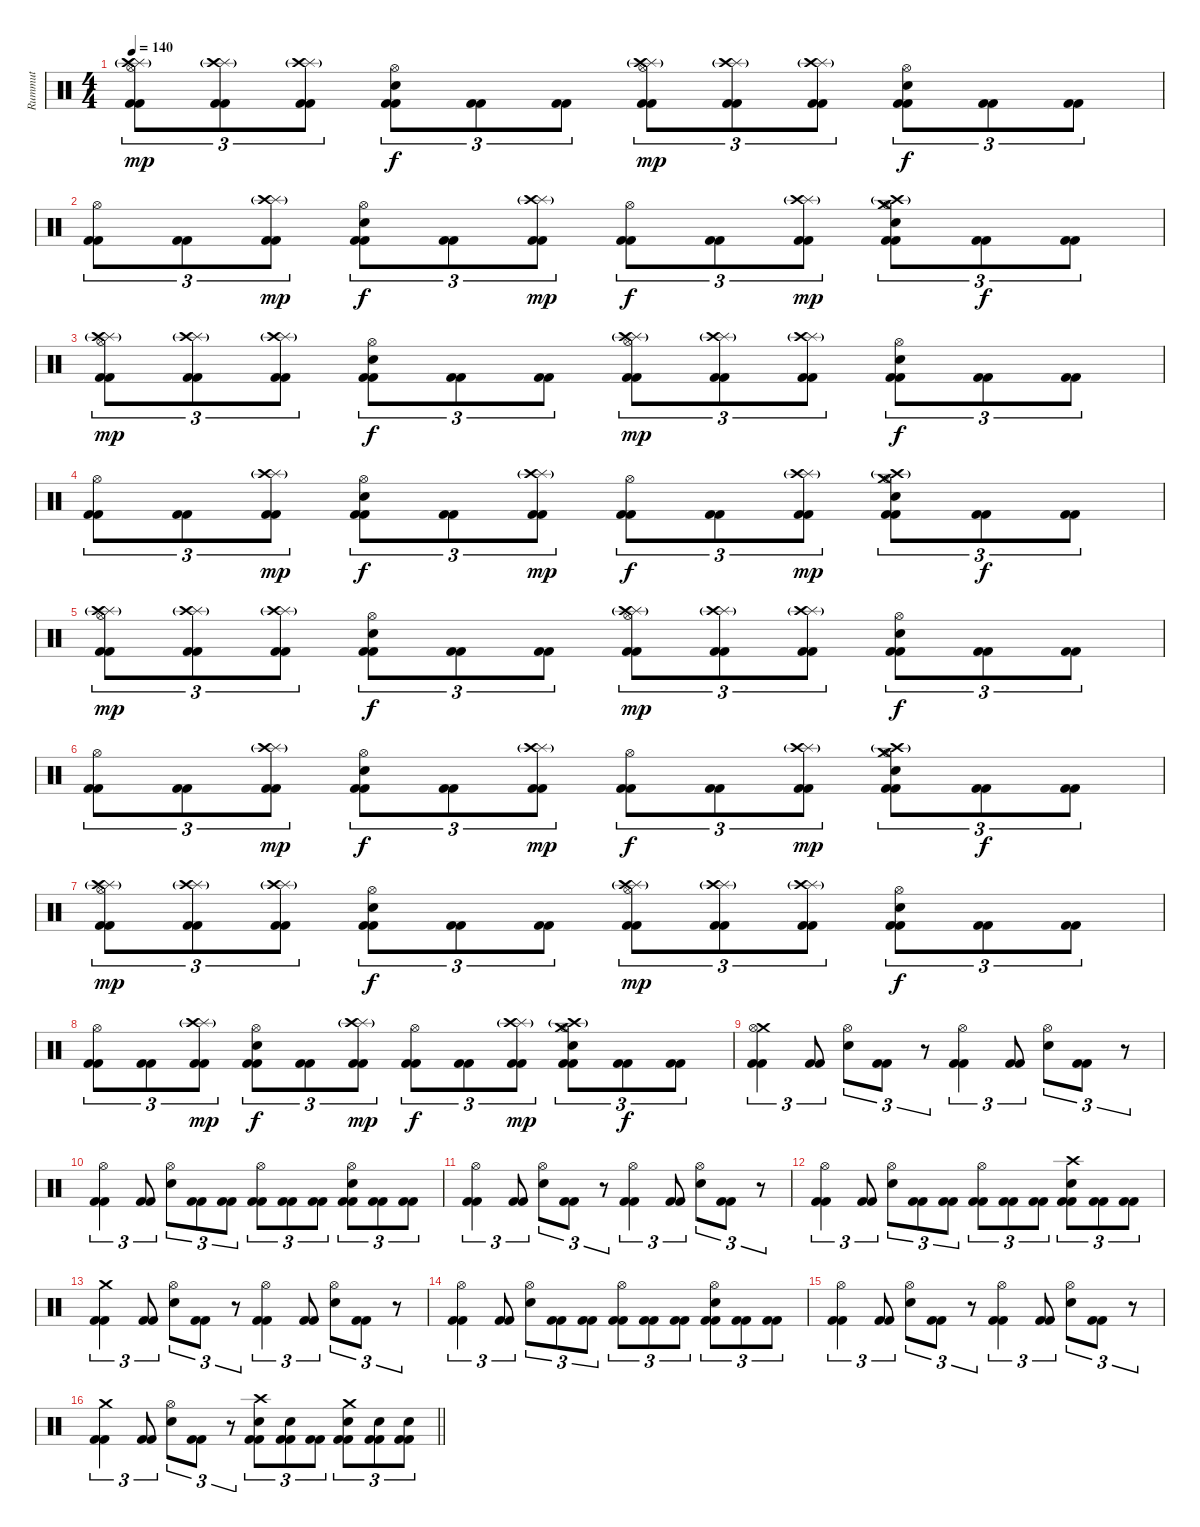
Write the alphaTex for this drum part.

\track ("Rummut" "Rummut") {instrument percussion}
\staff {score}
\articulation defaults
\ts (4 4)
\tempo 140
\clef neutral
\ks c
("Splash (hit)" "Crash high (hit)"{g} "Hi-Hat (open)" "Kick (hit) 2" "Kick (hit) 2").8{tu (3 2) dy mp} ("Splash (hit)" "Crash high (hit)"{g} "Kick (hit) 2" "Kick (hit) 2").8{tu (3 2)} ("Splash (hit)" "Crash high (hit)"{g} "Kick (hit) 2" "Kick (hit) 2").8{tu (3 2)} ("Hi-Hat (open)" "Electric Snare (hit)" "Kick (hit) 2" "Kick (hit) 2").8{tu (3 2) dy f} ("Kick (hit) 2" "Kick (hit) 2").8{tu (3 2)} ("Kick (hit) 2" "Kick (hit) 2").8{tu (3 2)} ("Splash (hit)" "Crash high (hit)"{g} "Hi-Hat (open)" "Kick (hit) 2" "Kick (hit) 2").8{tu (3 2) dy mp} ("Splash (hit)" "Crash high (hit)"{g} "Kick (hit) 2" "Kick (hit) 2").8{tu (3 2)} ("Splash (hit)" "Crash high (hit)"{g} "Kick (hit) 2" "Kick (hit) 2").8{tu (3 2)} ("Hi-Hat (open)" "Electric Snare (hit)" "Kick (hit) 2" "Kick (hit) 2").8{tu (3 2) dy f} ("Kick (hit) 2" "Kick (hit) 2").8{tu (3 2)} ("Kick (hit) 2" "Kick (hit) 2").8{tu (3 2)} |
("Hi-Hat (open)" "Kick (hit) 2" "Kick (hit) 2").8{tu (3 2)} ("Kick (hit) 2" "Kick (hit) 2").8{tu (3 2)} ("Splash (hit)" "Crash high (hit)"{g} "Kick (hit) 2" "Kick (hit) 2").8{tu (3 2) dy mp} ("Hi-Hat (open)" "Electric Snare (hit)" "Kick (hit) 2" "Kick (hit) 2").8{tu (3 2) dy f} ("Kick (hit) 2" "Kick (hit) 2").8{tu (3 2)} ("Splash (hit)" "Crash high (hit)"{g} "Kick (hit) 2" "Kick (hit) 2").8{tu (3 2) dy mp} ("Hi-Hat (open)" "Kick (hit) 2" "Kick (hit) 2").8{tu (3 2) dy f} ("Kick (hit) 2" "Kick (hit) 2").8{tu (3 2)} ("Splash (hit)" "Crash high (hit)"{g} "Kick (hit) 2" "Kick (hit) 2").8{tu (3 2) dy mp} ("Crash medium (hit)" "Crash high (hit)"{g} "Hi-Hat (open)" "Electric Snare (hit)" "Kick (hit) 2" "Kick (hit) 2").8{tu (3 2)} ("Kick (hit) 2" "Kick (hit) 2").8{tu (3 2) dy f} ("Kick (hit) 2" "Kick (hit) 2").8{tu (3 2)} |
("Splash (hit)" "Crash high (hit)"{g} "Hi-Hat (open)" "Kick (hit) 2" "Kick (hit) 2").8{tu (3 2) dy mp} ("Splash (hit)" "Crash high (hit)"{g} "Kick (hit) 2" "Kick (hit) 2").8{tu (3 2)} ("Splash (hit)" "Crash high (hit)"{g} "Kick (hit) 2" "Kick (hit) 2").8{tu (3 2)} ("Hi-Hat (open)" "Electric Snare (hit)" "Kick (hit) 2" "Kick (hit) 2").8{tu (3 2) dy f} ("Kick (hit) 2" "Kick (hit) 2").8{tu (3 2)} ("Kick (hit) 2" "Kick (hit) 2").8{tu (3 2)} ("Splash (hit)" "Crash high (hit)"{g} "Hi-Hat (open)" "Kick (hit) 2" "Kick (hit) 2").8{tu (3 2) dy mp} ("Splash (hit)" "Crash high (hit)"{g} "Kick (hit) 2" "Kick (hit) 2").8{tu (3 2)} ("Splash (hit)" "Crash high (hit)"{g} "Kick (hit) 2" "Kick (hit) 2").8{tu (3 2)} ("Hi-Hat (open)" "Electric Snare (hit)" "Kick (hit) 2" "Kick (hit) 2").8{tu (3 2) dy f} ("Kick (hit) 2" "Kick (hit) 2").8{tu (3 2)} ("Kick (hit) 2" "Kick (hit) 2").8{tu (3 2)} |
("Hi-Hat (open)" "Kick (hit) 2" "Kick (hit) 2").8{tu (3 2)} ("Kick (hit) 2" "Kick (hit) 2").8{tu (3 2)} ("Splash (hit)" "Crash high (hit)"{g} "Kick (hit) 2" "Kick (hit) 2").8{tu (3 2) dy mp} ("Hi-Hat (open)" "Electric Snare (hit)" "Kick (hit) 2" "Kick (hit) 2").8{tu (3 2) dy f} ("Kick (hit) 2" "Kick (hit) 2").8{tu (3 2)} ("Splash (hit)" "Crash high (hit)"{g} "Kick (hit) 2" "Kick (hit) 2").8{tu (3 2) dy mp} ("Hi-Hat (open)" "Kick (hit) 2" "Kick (hit) 2").8{tu (3 2) dy f} ("Kick (hit) 2" "Kick (hit) 2").8{tu (3 2)} ("Splash (hit)" "Crash high (hit)"{g} "Kick (hit) 2" "Kick (hit) 2").8{tu (3 2) dy mp} ("Crash medium (hit)" "Crash high (hit)"{g} "Hi-Hat (open)" "Electric Snare (hit)" "Kick (hit) 2" "Kick (hit) 2").8{tu (3 2)} ("Kick (hit) 2" "Kick (hit) 2").8{tu (3 2) dy f} ("Kick (hit) 2" "Kick (hit) 2").8{tu (3 2)} |
("Splash (hit)" "Crash high (hit)"{g} "Hi-Hat (open)" "Kick (hit) 2" "Kick (hit) 2").8{tu (3 2) dy mp} ("Splash (hit)" "Crash high (hit)"{g} "Kick (hit) 2" "Kick (hit) 2").8{tu (3 2)} ("Splash (hit)" "Crash high (hit)"{g} "Kick (hit) 2" "Kick (hit) 2").8{tu (3 2)} ("Hi-Hat (open)" "Electric Snare (hit)" "Kick (hit) 2" "Kick (hit) 2").8{tu (3 2) dy f} ("Kick (hit) 2" "Kick (hit) 2").8{tu (3 2)} ("Kick (hit) 2" "Kick (hit) 2").8{tu (3 2)} ("Splash (hit)" "Crash high (hit)"{g} "Hi-Hat (open)" "Kick (hit) 2" "Kick (hit) 2").8{tu (3 2) dy mp} ("Splash (hit)" "Crash high (hit)"{g} "Kick (hit) 2" "Kick (hit) 2").8{tu (3 2)} ("Splash (hit)" "Crash high (hit)"{g} "Kick (hit) 2" "Kick (hit) 2").8{tu (3 2)} ("Hi-Hat (open)" "Electric Snare (hit)" "Kick (hit) 2" "Kick (hit) 2").8{tu (3 2) dy f} ("Kick (hit) 2" "Kick (hit) 2").8{tu (3 2)} ("Kick (hit) 2" "Kick (hit) 2").8{tu (3 2)} |
("Hi-Hat (open)" "Kick (hit) 2" "Kick (hit) 2").8{tu (3 2)} ("Kick (hit) 2" "Kick (hit) 2").8{tu (3 2)} ("Splash (hit)" "Crash high (hit)"{g} "Kick (hit) 2" "Kick (hit) 2").8{tu (3 2) dy mp} ("Hi-Hat (open)" "Electric Snare (hit)" "Kick (hit) 2" "Kick (hit) 2").8{tu (3 2) dy f} ("Kick (hit) 2" "Kick (hit) 2").8{tu (3 2)} ("Splash (hit)" "Crash high (hit)"{g} "Kick (hit) 2" "Kick (hit) 2").8{tu (3 2) dy mp} ("Hi-Hat (open)" "Kick (hit) 2" "Kick (hit) 2").8{tu (3 2) dy f} ("Kick (hit) 2" "Kick (hit) 2").8{tu (3 2)} ("Splash (hit)" "Crash high (hit)"{g} "Kick (hit) 2" "Kick (hit) 2").8{tu (3 2) dy mp} ("Crash medium (hit)" "Crash high (hit)"{g} "Hi-Hat (open)" "Electric Snare (hit)" "Kick (hit) 2" "Kick (hit) 2").8{tu (3 2)} ("Kick (hit) 2" "Kick (hit) 2").8{tu (3 2) dy f} ("Kick (hit) 2" "Kick (hit) 2").8{tu (3 2)} |
("Splash (hit)" "Crash high (hit)"{g} "Hi-Hat (open)" "Kick (hit) 2" "Kick (hit) 2").8{tu (3 2) dy mp} ("Splash (hit)" "Crash high (hit)"{g} "Kick (hit) 2" "Kick (hit) 2").8{tu (3 2)} ("Splash (hit)" "Crash high (hit)"{g} "Kick (hit) 2" "Kick (hit) 2").8{tu (3 2)} ("Hi-Hat (open)" "Electric Snare (hit)" "Kick (hit) 2" "Kick (hit) 2").8{tu (3 2) dy f} ("Kick (hit) 2" "Kick (hit) 2").8{tu (3 2)} ("Kick (hit) 2" "Kick (hit) 2").8{tu (3 2)} ("Splash (hit)" "Crash high (hit)"{g} "Hi-Hat (open)" "Kick (hit) 2" "Kick (hit) 2").8{tu (3 2) dy mp} ("Splash (hit)" "Crash high (hit)"{g} "Kick (hit) 2" "Kick (hit) 2").8{tu (3 2)} ("Splash (hit)" "Crash high (hit)"{g} "Kick (hit) 2" "Kick (hit) 2").8{tu (3 2)} ("Hi-Hat (open)" "Electric Snare (hit)" "Kick (hit) 2" "Kick (hit) 2").8{tu (3 2) dy f} ("Kick (hit) 2" "Kick (hit) 2").8{tu (3 2)} ("Kick (hit) 2" "Kick (hit) 2").8{tu (3 2)} |
("Hi-Hat (open)" "Kick (hit) 2" "Kick (hit) 2").8{tu (3 2)} ("Kick (hit) 2" "Kick (hit) 2").8{tu (3 2)} ("Splash (hit)" "Crash high (hit)"{g} "Kick (hit) 2" "Kick (hit) 2").8{tu (3 2) dy mp} ("Hi-Hat (open)" "Electric Snare (hit)" "Kick (hit) 2" "Kick (hit) 2").8{tu (3 2) dy f} ("Kick (hit) 2" "Kick (hit) 2").8{tu (3 2)} ("Splash (hit)" "Crash high (hit)"{g} "Kick (hit) 2" "Kick (hit) 2").8{tu (3 2) dy mp} ("Hi-Hat (open)" "Kick (hit) 2" "Kick (hit) 2").8{tu (3 2) dy f} ("Kick (hit) 2" "Kick (hit) 2").8{tu (3 2)} ("Splash (hit)" "Crash high (hit)"{g} "Kick (hit) 2" "Kick (hit) 2").8{tu (3 2) dy mp} ("Crash medium (hit)" "Crash high (hit)"{g} "Hi-Hat (open)" "Electric Snare (hit)" "Kick (hit) 2" "Kick (hit) 2").8{tu (3 2)} ("Kick (hit) 2" "Kick (hit) 2").8{tu (3 2) dy f} ("Kick (hit) 2" "Kick (hit) 2").8{tu (3 2)} |
("Crash medium (hit)" "Hi-Hat (open)" "Kick (hit) 2" "Kick (hit) 2").4{tu (3 2)} ("Kick (hit) 2" "Kick (hit) 2").8{tu (3 2)} ("Hi-Hat (open)" "Electric Snare (hit)").8{tu (3 2)} ("Kick (hit) 2" "Kick (hit) 2").8{tu (3 2)} r.8{tu (3 2)} ("Hi-Hat (open)" "Kick (hit) 2" "Kick (hit) 2").4{tu (3 2)} ("Kick (hit) 2" "Kick (hit) 2").8{tu (3 2)} ("Hi-Hat (open)" "Electric Snare (hit)").8{tu (3 2)} ("Kick (hit) 2" "Kick (hit) 2").8{tu (3 2)} r.8{tu (3 2)} |
("Hi-Hat (open)" "Kick (hit) 2" "Kick (hit) 2").4{tu (3 2)} ("Kick (hit) 2" "Kick (hit) 2").8{tu (3 2)} ("Hi-Hat (open)" "Electric Snare (hit)").8{tu (3 2)} ("Kick (hit) 2" "Kick (hit) 2").8{tu (3 2)} ("Kick (hit) 2" "Kick (hit) 2").8{tu (3 2)} ("Hi-Hat (open)" "Kick (hit) 2" "Kick (hit) 2").8{tu (3 2)} ("Kick (hit) 2" "Kick (hit) 2").8{tu (3 2)} ("Kick (hit) 2" "Kick (hit) 2").8{tu (3 2)} ("Hi-Hat (open)" "Electric Snare (hit)" "Kick (hit) 2" "Kick (hit) 2").8{tu (3 2)} ("Kick (hit) 2" "Kick (hit) 2").8{tu (3 2)} ("Kick (hit) 2" "Kick (hit) 2").8{tu (3 2)} |
("Hi-Hat (open)" "Kick (hit) 2" "Kick (hit) 2").4{tu (3 2)} ("Kick (hit) 2" "Kick (hit) 2").8{tu (3 2)} ("Hi-Hat (open)" "Electric Snare (hit)").8{tu (3 2)} ("Kick (hit) 2" "Kick (hit) 2").8{tu (3 2)} r.8{tu (3 2)} ("Hi-Hat (open)" "Kick (hit) 2" "Kick (hit) 2").4{tu (3 2)} ("Kick (hit) 2" "Kick (hit) 2").8{tu (3 2)} ("Hi-Hat (open)" "Electric Snare (hit)").8{tu (3 2)} ("Kick (hit) 2" "Kick (hit) 2").8{tu (3 2)} r.8{tu (3 2)} |
("Hi-Hat (open)" "Kick (hit) 2" "Kick (hit) 2").4{tu (3 2)} ("Kick (hit) 2" "Kick (hit) 2").8{tu (3 2)} ("Hi-Hat (open)" "Electric Snare (hit)").8{tu (3 2)} ("Kick (hit) 2" "Kick (hit) 2").8{tu (3 2)} ("Kick (hit) 2" "Kick (hit) 2").8{tu (3 2)} ("Hi-Hat (open)" "Kick (hit) 2" "Kick (hit) 2").8{tu (3 2)} ("Kick (hit) 2" "Kick (hit) 2").8{tu (3 2)} ("Kick (hit) 2" "Kick (hit) 2").8{tu (3 2)} ("Crash high (hit)" "Electric Snare (hit)" "Kick (hit) 2" "Kick (hit) 2").8{tu (3 2)} ("Kick (hit) 2" "Kick (hit) 2").8{tu (3 2)} ("Kick (hit) 2" "Kick (hit) 2").8{tu (3 2)} |
("Crash medium (hit)" "Kick (hit) 2" "Kick (hit) 2").4{tu (3 2)} ("Kick (hit) 2" "Kick (hit) 2").8{tu (3 2)} ("Hi-Hat (open)" "Electric Snare (hit)").8{tu (3 2)} ("Kick (hit) 2" "Kick (hit) 2").8{tu (3 2)} r.8{tu (3 2)} ("Hi-Hat (open)" "Kick (hit) 2" "Kick (hit) 2").4{tu (3 2)} ("Kick (hit) 2" "Kick (hit) 2").8{tu (3 2)} ("Hi-Hat (open)" "Electric Snare (hit)").8{tu (3 2)} ("Kick (hit) 2" "Kick (hit) 2").8{tu (3 2)} r.8{tu (3 2)} |
("Hi-Hat (open)" "Kick (hit) 2" "Kick (hit) 2").4{tu (3 2)} ("Kick (hit) 2" "Kick (hit) 2").8{tu (3 2)} ("Hi-Hat (open)" "Electric Snare (hit)").8{tu (3 2)} ("Kick (hit) 2" "Kick (hit) 2").8{tu (3 2)} ("Kick (hit) 2" "Kick (hit) 2").8{tu (3 2)} ("Hi-Hat (open)" "Kick (hit) 2" "Kick (hit) 2").8{tu (3 2)} ("Kick (hit) 2" "Kick (hit) 2").8{tu (3 2)} ("Kick (hit) 2" "Kick (hit) 2").8{tu (3 2)} ("Hi-Hat (open)" "Electric Snare (hit)" "Kick (hit) 2" "Kick (hit) 2").8{tu (3 2)} ("Kick (hit) 2" "Kick (hit) 2").8{tu (3 2)} ("Kick (hit) 2" "Kick (hit) 2").8{tu (3 2)} |
("Hi-Hat (open)" "Kick (hit) 2" "Kick (hit) 2").4{tu (3 2)} ("Kick (hit) 2" "Kick (hit) 2").8{tu (3 2)} ("Hi-Hat (open)" "Electric Snare (hit)").8{tu (3 2)} ("Kick (hit) 2" "Kick (hit) 2").8{tu (3 2)} r.8{tu (3 2)} ("Hi-Hat (open)" "Kick (hit) 2" "Kick (hit) 2").4{tu (3 2)} ("Kick (hit) 2" "Kick (hit) 2").8{tu (3 2)} ("Hi-Hat (open)" "Electric Snare (hit)").8{tu (3 2)} ("Kick (hit) 2" "Kick (hit) 2").8{tu (3 2)} r.8{tu (3 2)} |
\barLineRight lightlight
("Crash medium (hit)" "Kick (hit) 2" "Kick (hit) 2").4{tu (3 2)} ("Kick (hit) 2" "Kick (hit) 2").8{tu (3 2)} ("Hi-Hat (open)" "Electric Snare (hit)").8{tu (3 2)} ("Kick (hit) 2" "Kick (hit) 2").8{tu (3 2)} r.8{tu (3 2)} ("Crash high (hit)" "Electric Snare (hit)" "Kick (hit) 2" "Kick (hit) 2").8{tu (3 2)} ("Electric Snare (hit)" "Kick (hit) 2" "Kick (hit) 2").8{tu (3 2)} ("Kick (hit) 2" "Kick (hit) 2").8{tu (3 2)} ("Crash medium (hit)" "Electric Snare (hit)" "Kick (hit) 2" "Kick (hit) 2").8{tu (3 2)} ("Electric Snare (hit)" "Kick (hit) 2" "Kick (hit) 2").8{tu (3 2)} ("Electric Snare (hit)" "Kick (hit) 2" "Kick (hit) 2").8{tu (3 2)}
